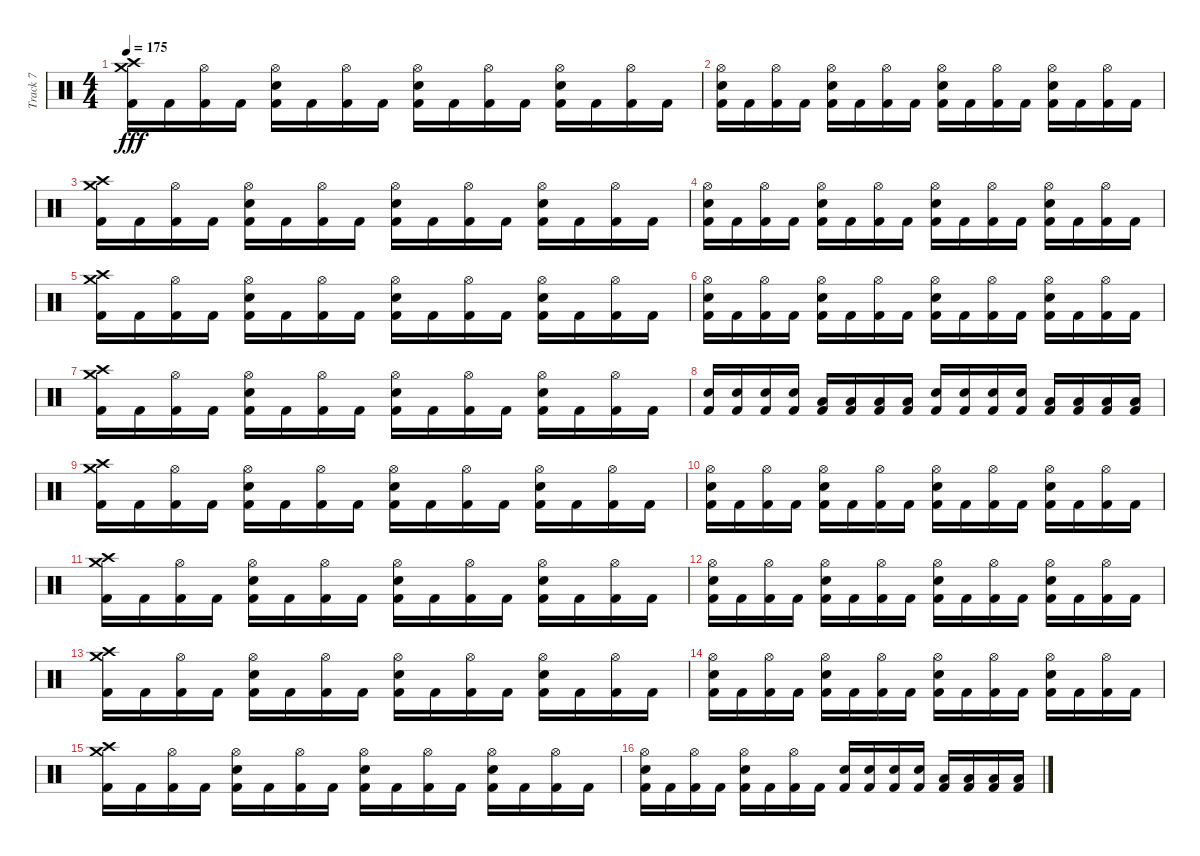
\track ("Track 7" "Track 7") {instrument percussion}
\staff {score}
\articulation defaults
\ts (4 4)
\tempo 175
\clef neutral
\ks c
("Kick (hit) 2" "Crash medium (hit)" "Crash high (hit)").16{dy fff} "Kick (hit) 2".16 ("Kick (hit) 2" "Hi-Hat (open)").16 "Kick (hit) 2".16 ("Kick (hit) 2" "Electric Snare (hit)" "Hi-Hat (open)").16 "Kick (hit) 2".16 ("Kick (hit) 2" "Hi-Hat (open)").16 "Kick (hit) 2".16 ("Kick (hit) 2" "Electric Snare (hit)" "Hi-Hat (open)").16 "Kick (hit) 2".16 ("Kick (hit) 2" "Hi-Hat (open)").16 "Kick (hit) 2".16 ("Kick (hit) 2" "Electric Snare (hit)" "Hi-Hat (open)").16 "Kick (hit) 2".16 ("Kick (hit) 2" "Hi-Hat (open)").16 "Kick (hit) 2".16 |
("Kick (hit) 2" "Electric Snare (hit)" "Hi-Hat (open)").16 "Kick (hit) 2".16 ("Kick (hit) 2" "Hi-Hat (open)").16 "Kick (hit) 2".16 ("Kick (hit) 2" "Electric Snare (hit)" "Hi-Hat (open)").16 "Kick (hit) 2".16 ("Kick (hit) 2" "Hi-Hat (open)").16 "Kick (hit) 2".16 ("Kick (hit) 2" "Electric Snare (hit)" "Hi-Hat (open)").16 "Kick (hit) 2".16 ("Kick (hit) 2" "Hi-Hat (open)").16 "Kick (hit) 2".16 ("Kick (hit) 2" "Electric Snare (hit)" "Hi-Hat (open)").16 "Kick (hit) 2".16 ("Kick (hit) 2" "Hi-Hat (open)").16 "Kick (hit) 2".16 |
("Kick (hit) 2" "Crash medium (hit)" "Crash high (hit)").16 "Kick (hit) 2".16 ("Kick (hit) 2" "Hi-Hat (open)").16 "Kick (hit) 2".16 ("Kick (hit) 2" "Electric Snare (hit)" "Hi-Hat (open)").16 "Kick (hit) 2".16 ("Kick (hit) 2" "Hi-Hat (open)").16 "Kick (hit) 2".16 ("Kick (hit) 2" "Electric Snare (hit)" "Hi-Hat (open)").16 "Kick (hit) 2".16 ("Kick (hit) 2" "Hi-Hat (open)").16 "Kick (hit) 2".16 ("Kick (hit) 2" "Electric Snare (hit)" "Hi-Hat (open)").16 "Kick (hit) 2".16 ("Kick (hit) 2" "Hi-Hat (open)").16 "Kick (hit) 2".16 |
("Kick (hit) 2" "Electric Snare (hit)" "Hi-Hat (open)").16 "Kick (hit) 2".16 ("Kick (hit) 2" "Hi-Hat (open)").16 "Kick (hit) 2".16 ("Kick (hit) 2" "Electric Snare (hit)" "Hi-Hat (open)").16 "Kick (hit) 2".16 ("Kick (hit) 2" "Hi-Hat (open)").16 "Kick (hit) 2".16 ("Kick (hit) 2" "Electric Snare (hit)" "Hi-Hat (open)").16 "Kick (hit) 2".16 ("Kick (hit) 2" "Hi-Hat (open)").16 "Kick (hit) 2".16 ("Kick (hit) 2" "Electric Snare (hit)" "Hi-Hat (open)").16 "Kick (hit) 2".16 ("Kick (hit) 2" "Hi-Hat (open)").16 "Kick (hit) 2".16 |
("Kick (hit) 2" "Crash medium (hit)" "Crash high (hit)").16 "Kick (hit) 2".16 ("Kick (hit) 2" "Hi-Hat (open)").16 "Kick (hit) 2".16 ("Kick (hit) 2" "Electric Snare (hit)" "Hi-Hat (open)").16 "Kick (hit) 2".16 ("Kick (hit) 2" "Hi-Hat (open)").16 "Kick (hit) 2".16 ("Kick (hit) 2" "Electric Snare (hit)" "Hi-Hat (open)").16 "Kick (hit) 2".16 ("Kick (hit) 2" "Hi-Hat (open)").16 "Kick (hit) 2".16 ("Kick (hit) 2" "Electric Snare (hit)" "Hi-Hat (open)").16 "Kick (hit) 2".16 ("Kick (hit) 2" "Hi-Hat (open)").16 "Kick (hit) 2".16 |
("Kick (hit) 2" "Electric Snare (hit)" "Hi-Hat (open)").16 "Kick (hit) 2".16 ("Kick (hit) 2" "Hi-Hat (open)").16 "Kick (hit) 2".16 ("Kick (hit) 2" "Electric Snare (hit)" "Hi-Hat (open)").16 "Kick (hit) 2".16 ("Kick (hit) 2" "Hi-Hat (open)").16 "Kick (hit) 2".16 ("Kick (hit) 2" "Electric Snare (hit)" "Hi-Hat (open)").16 "Kick (hit) 2".16 ("Kick (hit) 2" "Hi-Hat (open)").16 "Kick (hit) 2".16 ("Kick (hit) 2" "Electric Snare (hit)" "Hi-Hat (open)").16 "Kick (hit) 2".16 ("Kick (hit) 2" "Hi-Hat (open)").16 "Kick (hit) 2".16 |
("Kick (hit) 2" "Crash high (hit)" "Crash medium (hit)").16 "Kick (hit) 2".16 ("Kick (hit) 2" "Hi-Hat (open)").16 "Kick (hit) 2".16 ("Kick (hit) 2" "Electric Snare (hit)" "Hi-Hat (open)").16 "Kick (hit) 2".16 ("Kick (hit) 2" "Hi-Hat (open)").16 "Kick (hit) 2".16 ("Kick (hit) 2" "Electric Snare (hit)" "Hi-Hat (open)").16 "Kick (hit) 2".16 ("Kick (hit) 2" "Hi-Hat (open)").16 "Kick (hit) 2".16 ("Kick (hit) 2" "Electric Snare (hit)" "Hi-Hat (open)").16 "Kick (hit) 2".16 ("Kick (hit) 2" "Hi-Hat (open)").16 "Kick (hit) 2".16 |
("Kick (hit) 2" "Electric Snare (hit)").16 ("Kick (hit) 2" "Electric Snare (hit)").16 ("Kick (hit) 2" "Electric Snare (hit)").16 ("Kick (hit) 2" "Electric Snare (hit)").16 ("Kick (hit) 2" "Low Tom (hit)").16 ("Kick (hit) 2" "Low Tom (hit)").16 ("Kick (hit) 2" "Low Tom (hit)").16 ("Kick (hit) 2" "Low Tom (hit)").16 ("Kick (hit) 2" "Electric Snare (hit)").16 ("Kick (hit) 2" "Electric Snare (hit)").16 ("Kick (hit) 2" "Electric Snare (hit)").16 ("Kick (hit) 2" "Electric Snare (hit)").16 ("Kick (hit) 2" "Low Tom (hit)").16 ("Kick (hit) 2" "Low Tom (hit)").16 ("Kick (hit) 2" "Low Tom (hit)").16 ("Kick (hit) 2" "Low Tom (hit)").16 |
("Kick (hit) 2" "Crash medium (hit)" "Crash high (hit)").16 "Kick (hit) 2".16 ("Kick (hit) 2" "Hi-Hat (open)").16 "Kick (hit) 2".16 ("Kick (hit) 2" "Electric Snare (hit)" "Hi-Hat (open)").16 "Kick (hit) 2".16 ("Kick (hit) 2" "Hi-Hat (open)").16 "Kick (hit) 2".16 ("Kick (hit) 2" "Electric Snare (hit)" "Hi-Hat (open)").16 "Kick (hit) 2".16 ("Kick (hit) 2" "Hi-Hat (open)").16 "Kick (hit) 2".16 ("Kick (hit) 2" "Electric Snare (hit)" "Hi-Hat (open)").16 "Kick (hit) 2".16 ("Kick (hit) 2" "Hi-Hat (open)").16 "Kick (hit) 2".16 |
("Kick (hit) 2" "Electric Snare (hit)" "Hi-Hat (open)").16 "Kick (hit) 2".16 ("Kick (hit) 2" "Hi-Hat (open)").16 "Kick (hit) 2".16 ("Kick (hit) 2" "Electric Snare (hit)" "Hi-Hat (open)").16 "Kick (hit) 2".16 ("Kick (hit) 2" "Hi-Hat (open)").16 "Kick (hit) 2".16 ("Kick (hit) 2" "Electric Snare (hit)" "Hi-Hat (open)").16 "Kick (hit) 2".16 ("Kick (hit) 2" "Hi-Hat (open)").16 "Kick (hit) 2".16 ("Kick (hit) 2" "Electric Snare (hit)" "Hi-Hat (open)").16 "Kick (hit) 2".16 ("Kick (hit) 2" "Hi-Hat (open)").16 "Kick (hit) 2".16 |
("Kick (hit) 2" "Crash medium (hit)" "Crash high (hit)").16 "Kick (hit) 2".16 ("Kick (hit) 2" "Hi-Hat (open)").16 "Kick (hit) 2".16 ("Kick (hit) 2" "Electric Snare (hit)" "Hi-Hat (open)").16 "Kick (hit) 2".16 ("Kick (hit) 2" "Hi-Hat (open)").16 "Kick (hit) 2".16 ("Kick (hit) 2" "Electric Snare (hit)" "Hi-Hat (open)").16 "Kick (hit) 2".16 ("Kick (hit) 2" "Hi-Hat (open)").16 "Kick (hit) 2".16 ("Kick (hit) 2" "Electric Snare (hit)" "Hi-Hat (open)").16 "Kick (hit) 2".16 ("Kick (hit) 2" "Hi-Hat (open)").16 "Kick (hit) 2".16 |
("Kick (hit) 2" "Electric Snare (hit)" "Hi-Hat (open)").16 "Kick (hit) 2".16 ("Kick (hit) 2" "Hi-Hat (open)").16 "Kick (hit) 2".16 ("Kick (hit) 2" "Electric Snare (hit)" "Hi-Hat (open)").16 "Kick (hit) 2".16 ("Kick (hit) 2" "Hi-Hat (open)").16 "Kick (hit) 2".16 ("Kick (hit) 2" "Electric Snare (hit)" "Hi-Hat (open)").16 "Kick (hit) 2".16 ("Kick (hit) 2" "Hi-Hat (open)").16 "Kick (hit) 2".16 ("Kick (hit) 2" "Electric Snare (hit)" "Hi-Hat (open)").16 "Kick (hit) 2".16 ("Kick (hit) 2" "Hi-Hat (open)").16 "Kick (hit) 2".16 |
("Kick (hit) 2" "Crash medium (hit)" "Crash high (hit)").16 "Kick (hit) 2".16 ("Kick (hit) 2" "Hi-Hat (open)").16 "Kick (hit) 2".16 ("Kick (hit) 2" "Electric Snare (hit)" "Hi-Hat (open)").16 "Kick (hit) 2".16 ("Kick (hit) 2" "Hi-Hat (open)").16 "Kick (hit) 2".16 ("Kick (hit) 2" "Electric Snare (hit)" "Hi-Hat (open)").16 "Kick (hit) 2".16 ("Kick (hit) 2" "Hi-Hat (open)").16 "Kick (hit) 2".16 ("Kick (hit) 2" "Electric Snare (hit)" "Hi-Hat (open)").16 "Kick (hit) 2".16 ("Kick (hit) 2" "Hi-Hat (open)").16 "Kick (hit) 2".16 |
("Kick (hit) 2" "Electric Snare (hit)" "Hi-Hat (open)").16 "Kick (hit) 2".16 ("Kick (hit) 2" "Hi-Hat (open)").16 "Kick (hit) 2".16 ("Kick (hit) 2" "Electric Snare (hit)" "Hi-Hat (open)").16 "Kick (hit) 2".16 ("Kick (hit) 2" "Hi-Hat (open)").16 "Kick (hit) 2".16 ("Kick (hit) 2" "Electric Snare (hit)" "Hi-Hat (open)").16 "Kick (hit) 2".16 ("Kick (hit) 2" "Hi-Hat (open)").16 "Kick (hit) 2".16 ("Kick (hit) 2" "Electric Snare (hit)" "Hi-Hat (open)").16 "Kick (hit) 2".16 ("Kick (hit) 2" "Hi-Hat (open)").16 "Kick (hit) 2".16 |
("Kick (hit) 2" "Crash medium (hit)" "Crash high (hit)").16 "Kick (hit) 2".16 ("Kick (hit) 2" "Hi-Hat (open)").16 "Kick (hit) 2".16 ("Kick (hit) 2" "Electric Snare (hit)" "Hi-Hat (open)").16 "Kick (hit) 2".16 ("Kick (hit) 2" "Hi-Hat (open)").16 "Kick (hit) 2".16 ("Kick (hit) 2" "Electric Snare (hit)" "Hi-Hat (open)").16 "Kick (hit) 2".16 ("Kick (hit) 2" "Hi-Hat (open)").16 "Kick (hit) 2".16 ("Kick (hit) 2" "Electric Snare (hit)" "Hi-Hat (open)").16 "Kick (hit) 2".16 ("Kick (hit) 2" "Hi-Hat (open)").16 "Kick (hit) 2".16 |
("Kick (hit) 2" "Electric Snare (hit)" "Hi-Hat (open)").16 "Kick (hit) 2".16 ("Kick (hit) 2" "Hi-Hat (open)").16 "Kick (hit) 2".16 ("Kick (hit) 2" "Electric Snare (hit)" "Hi-Hat (open)").16 "Kick (hit) 2".16 ("Kick (hit) 2" "Hi-Hat (open)").16 "Kick (hit) 2".16 ("Kick (hit) 2" "Electric Snare (hit)").16 ("Kick (hit) 2" "Electric Snare (hit)").16 ("Kick (hit) 2" "Electric Snare (hit)").16 ("Kick (hit) 2" "Electric Snare (hit)").16 ("Kick (hit) 2" "Low Tom (hit)").16 ("Kick (hit) 2" "Low Tom (hit)").16 ("Kick (hit) 2" "Low Tom (hit)").16 ("Kick (hit) 2" "Low Tom (hit)").16
